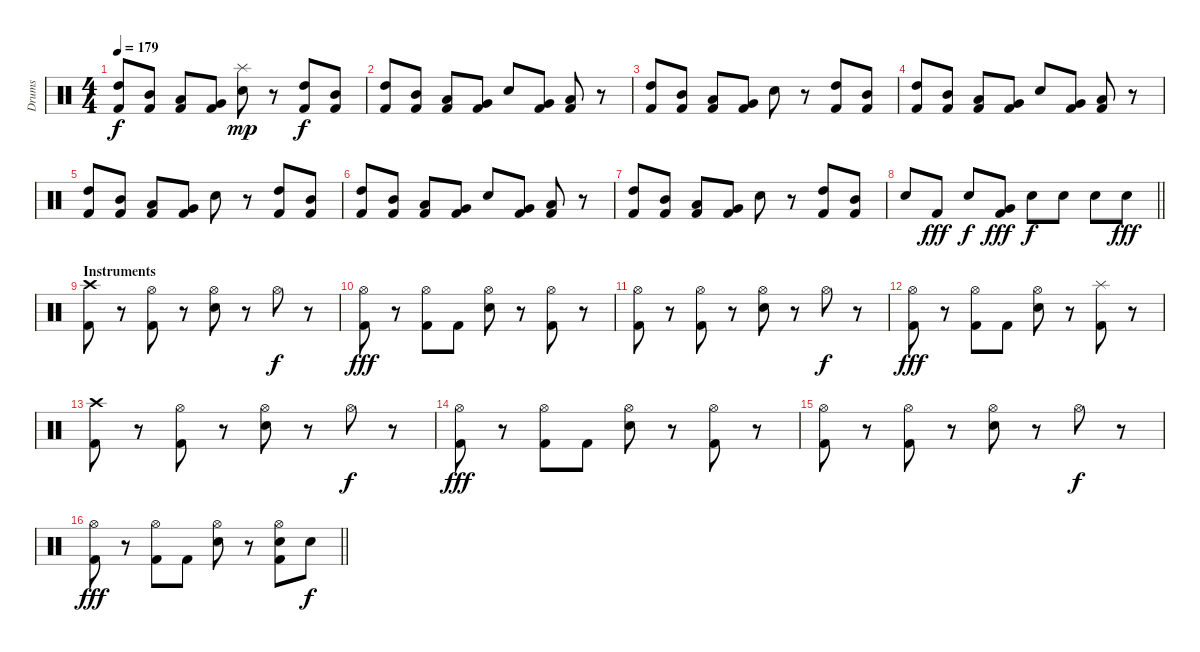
\track ("Drums" "Drums") {instrument percussion}
\staff {score}
\articulation defaults
\ts (4 4)
\tempo 179
\clef neutral
\ks c
("High Tom (hit)" "Kick (hit) 2").8{dy f} ("Mid Tom (hit)" "Kick (hit) 2").8 ("Low Tom (hit)" "Kick (hit) 2").8 ("Very Low Tom (hit)" "Kick (hit) 2").8 ("Splash (hit)" "Snare (hit) 2").8{dy mp} r.8 ("High Tom (hit)" "Kick (hit) 2").8{dy f} ("Mid Tom (hit)" "Kick (hit) 2").8 |
("High Tom (hit)" "Kick (hit) 2").8 ("Mid Tom (hit)" "Kick (hit) 2").8 ("Low Tom (hit)" "Kick (hit) 2").8 ("Very Low Tom (hit)" "Kick (hit) 2").8 "Snare (hit) 2".8 ("Very Low Tom (hit)" "Kick (hit) 2").8 ("Low Tom (hit)" "Kick (hit) 2").8 r.8 |
("High Tom (hit)" "Kick (hit) 2").8 ("Mid Tom (hit)" "Kick (hit) 2").8 ("Low Tom (hit)" "Kick (hit) 2").8 ("Very Low Tom (hit)" "Kick (hit) 2").8 "Snare (hit) 2".8 r.8 ("High Tom (hit)" "Kick (hit) 2").8 ("Mid Tom (hit)" "Kick (hit) 2").8 |
("High Tom (hit)" "Kick (hit) 2").8 ("Mid Tom (hit)" "Kick (hit) 2").8 ("Low Tom (hit)" "Kick (hit) 2").8 ("Very Low Tom (hit)" "Kick (hit) 2").8 "Snare (hit) 2".8 ("Very Low Tom (hit)" "Kick (hit) 2").8 ("Low Tom (hit)" "Kick (hit) 2").8 r.8 |
("High Tom (hit)" "Kick (hit) 2").8 ("Mid Tom (hit)" "Kick (hit) 2").8 ("Low Tom (hit)" "Kick (hit) 2").8 ("Very Low Tom (hit)" "Kick (hit) 2").8 "Snare (hit) 2".8 r.8 ("High Tom (hit)" "Kick (hit) 2").8 ("Mid Tom (hit)" "Kick (hit) 2").8 |
("High Tom (hit)" "Kick (hit) 2").8 ("Mid Tom (hit)" "Kick (hit) 2").8 ("Low Tom (hit)" "Kick (hit) 2").8 ("Very Low Tom (hit)" "Kick (hit) 2").8 "Snare (hit) 2".8 ("Very Low Tom (hit)" "Kick (hit) 2").8 ("Low Tom (hit)" "Kick (hit) 2").8 r.8 |
("High Tom (hit)" "Kick (hit) 2").8 ("Mid Tom (hit)" "Kick (hit) 2").8 ("Low Tom (hit)" "Kick (hit) 2").8 ("Very Low Tom (hit)" "Kick (hit) 2").8 "Snare (hit) 2".8 r.8 ("High Tom (hit)" "Kick (hit) 2").8 ("Mid Tom (hit)" "Kick (hit) 2").8 |
\barLineRight lightlight "Snare (hit) 2".8 "Kick (hit) 2".8{dy fff} "Snare (hit) 2".8{dy f}
("Very Low Tom (hit)" "Kick (hit) 2").8{dy fff} "Snare (hit) 2".8{dy f} "Snare (hit) 2".8 "Snare (hit) 2".8 "Snare (hit) 2".8{dy fff} |
\section ("" "Instruments")
("Crash high (hit)" "Kick (hit) 2").8 r.8 ("Hi-Hat (open)" "Kick (hit) 2").8 r.8 ("Hi-Hat (open)" "Snare (hit) 2").8 r.8 "Hi-Hat (open)".8{dy f} r.8 |
("Hi-Hat (open)" "Kick (hit) 2").8{dy fff} r.8 ("Hi-Hat (open)" "Kick (hit) 2").8 "Kick (hit) 2".8 ("Hi-Hat (open)" "Snare (hit) 2").8 r.8 ("Hi-Hat (open)" "Kick (hit) 2").8 r.8 |
("Hi-Hat (open)" "Kick (hit) 2").8 r.8 ("Hi-Hat (open)" "Kick (hit) 2").8 r.8 ("Hi-Hat (open)" "Snare (hit) 2").8 r.8 "Hi-Hat (open)".8{dy f} r.8 |
("Hi-Hat (open)" "Kick (hit) 2").8{dy fff} r.8 ("Hi-Hat (open)" "Kick (hit) 2").8 "Kick (hit) 2".8 ("Hi-Hat (open)" "Snare (hit) 2").8 r.8 ("Splash (hit)" "Kick (hit) 2").8 r.8 |
("Crash high (hit)" "Kick (hit) 2").8 r.8 ("Hi-Hat (open)" "Kick (hit) 2").8 r.8 ("Hi-Hat (open)" "Snare (hit) 2").8 r.8 "Hi-Hat (open)".8{dy f} r.8 |
("Hi-Hat (open)" "Kick (hit) 2").8{dy fff} r.8 ("Hi-Hat (open)" "Kick (hit) 2").8 "Kick (hit) 2".8 ("Hi-Hat (open)" "Snare (hit) 2").8 r.8 ("Hi-Hat (open)" "Kick (hit) 2").8 r.8 |
("Hi-Hat (open)" "Kick (hit) 2").8 r.8 ("Hi-Hat (open)" "Kick (hit) 2").8 r.8 ("Hi-Hat (open)" "Snare (hit) 2").8 r.8 "Hi-Hat (open)".8{dy f} r.8 |
\barLineRight lightlight
("Hi-Hat (open)" "Kick (hit) 2").8{dy fff} r.8 ("Hi-Hat (open)" "Kick (hit) 2").8 "Kick (hit) 2".8 ("Hi-Hat (open)" "Snare (hit) 2").8 r.8 ("Hi-Hat (open)" "Snare (hit) 2" "Kick (hit) 2").8 "Snare (hit) 2".8{dy f}
